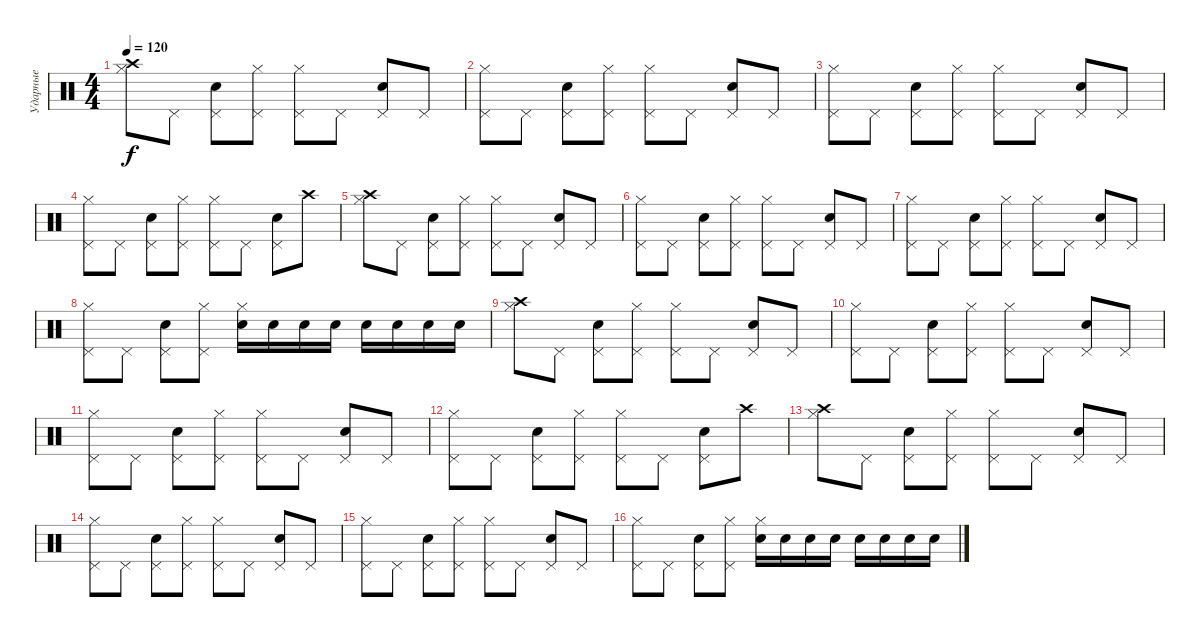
\track ("Ударные" "Ударные") {instrument percussion}
\staff {score}
\articulation defaults
\ts (4 4)
\tempo 120
\clef neutral
\ks c
("Crash high (hit)" "Hi-Hat (closed)").8{dy f} "Pedal Hi-Hat (hit)".8 ("Pedal Hi-Hat (hit)" "Snare (hit) 2").8 ("Pedal Hi-Hat (hit)" "Hi-Hat (closed)").8 ("Pedal Hi-Hat (hit)" "Hi-Hat (closed)").8 "Pedal Hi-Hat (hit)".8 ("Pedal Hi-Hat (hit)" "Snare (hit) 2").8 "Pedal Hi-Hat (hit)".8 |
("Pedal Hi-Hat (hit)" "Hi-Hat (closed)").8 "Pedal Hi-Hat (hit)".8 ("Pedal Hi-Hat (hit)" "Snare (hit) 2").8 ("Pedal Hi-Hat (hit)" "Hi-Hat (closed)").8 ("Pedal Hi-Hat (hit)" "Hi-Hat (closed)").8 "Pedal Hi-Hat (hit)".8 ("Pedal Hi-Hat (hit)" "Snare (hit) 2").8 "Pedal Hi-Hat (hit)".8 |
("Pedal Hi-Hat (hit)" "Hi-Hat (closed)").8 "Pedal Hi-Hat (hit)".8 ("Pedal Hi-Hat (hit)" "Snare (hit) 2").8 ("Pedal Hi-Hat (hit)" "Hi-Hat (closed)").8 ("Pedal Hi-Hat (hit)" "Hi-Hat (closed)").8 "Pedal Hi-Hat (hit)".8 ("Pedal Hi-Hat (hit)" "Snare (hit) 2").8 "Pedal Hi-Hat (hit)".8 |
("Pedal Hi-Hat (hit)" "Hi-Hat (closed)").8 "Pedal Hi-Hat (hit)".8 ("Pedal Hi-Hat (hit)" "Snare (hit) 2").8 ("Pedal Hi-Hat (hit)" "Hi-Hat (closed)").8 ("Pedal Hi-Hat (hit)" "Hi-Hat (closed)").8 "Pedal Hi-Hat (hit)".8 ("Pedal Hi-Hat (hit)" "Snare (hit) 2").8 "Crash high (hit)".8 |
("Crash high (hit)" "Hi-Hat (closed)").8 "Pedal Hi-Hat (hit)".8 ("Pedal Hi-Hat (hit)" "Snare (hit) 2").8 ("Pedal Hi-Hat (hit)" "Hi-Hat (closed)").8 ("Pedal Hi-Hat (hit)" "Hi-Hat (closed)").8 "Pedal Hi-Hat (hit)".8 ("Pedal Hi-Hat (hit)" "Snare (hit) 2").8 "Pedal Hi-Hat (hit)".8 |
("Pedal Hi-Hat (hit)" "Hi-Hat (closed)").8 "Pedal Hi-Hat (hit)".8 ("Pedal Hi-Hat (hit)" "Snare (hit) 2").8 ("Pedal Hi-Hat (hit)" "Hi-Hat (closed)").8 ("Pedal Hi-Hat (hit)" "Hi-Hat (closed)").8 "Pedal Hi-Hat (hit)".8 ("Pedal Hi-Hat (hit)" "Snare (hit) 2").8 "Pedal Hi-Hat (hit)".8 |
("Pedal Hi-Hat (hit)" "Hi-Hat (closed)").8 "Pedal Hi-Hat (hit)".8 ("Pedal Hi-Hat (hit)" "Snare (hit) 2").8 ("Pedal Hi-Hat (hit)" "Hi-Hat (closed)").8 ("Pedal Hi-Hat (hit)" "Hi-Hat (closed)").8 "Pedal Hi-Hat (hit)".8 ("Pedal Hi-Hat (hit)" "Snare (hit) 2").8 "Pedal Hi-Hat (hit)".8 |
("Pedal Hi-Hat (hit)" "Hi-Hat (closed)").8 "Pedal Hi-Hat (hit)".8 ("Pedal Hi-Hat (hit)" "Snare (hit) 2").8 ("Pedal Hi-Hat (hit)" "Hi-Hat (closed)").8 ("Hi-Hat (closed)" "Snare (hit) 2").16 "Snare (hit) 2".16 "Snare (hit) 2".16 "Snare (hit) 2".16 "Snare (hit) 2".16 "Snare (hit) 2".16 "Snare (hit) 2".16 "Snare (hit) 2".16 |
("Crash high (hit)" "Hi-Hat (closed)").8 "Pedal Hi-Hat (hit)".8 ("Pedal Hi-Hat (hit)" "Snare (hit) 2").8 ("Pedal Hi-Hat (hit)" "Hi-Hat (closed)").8 ("Pedal Hi-Hat (hit)" "Hi-Hat (closed)").8 "Pedal Hi-Hat (hit)".8 ("Pedal Hi-Hat (hit)" "Snare (hit) 2").8 "Pedal Hi-Hat (hit)".8 |
("Pedal Hi-Hat (hit)" "Hi-Hat (closed)").8 "Pedal Hi-Hat (hit)".8 ("Pedal Hi-Hat (hit)" "Snare (hit) 2").8 ("Pedal Hi-Hat (hit)" "Hi-Hat (closed)").8 ("Pedal Hi-Hat (hit)" "Hi-Hat (closed)").8 "Pedal Hi-Hat (hit)".8 ("Pedal Hi-Hat (hit)" "Snare (hit) 2").8 "Pedal Hi-Hat (hit)".8 |
("Pedal Hi-Hat (hit)" "Hi-Hat (closed)").8 "Pedal Hi-Hat (hit)".8 ("Pedal Hi-Hat (hit)" "Snare (hit) 2").8 ("Pedal Hi-Hat (hit)" "Hi-Hat (closed)").8 ("Pedal Hi-Hat (hit)" "Hi-Hat (closed)").8 "Pedal Hi-Hat (hit)".8 ("Pedal Hi-Hat (hit)" "Snare (hit) 2").8 "Pedal Hi-Hat (hit)".8 |
("Pedal Hi-Hat (hit)" "Hi-Hat (closed)").8 "Pedal Hi-Hat (hit)".8 ("Pedal Hi-Hat (hit)" "Snare (hit) 2").8 ("Pedal Hi-Hat (hit)" "Hi-Hat (closed)").8 ("Pedal Hi-Hat (hit)" "Hi-Hat (closed)").8 "Pedal Hi-Hat (hit)".8 ("Pedal Hi-Hat (hit)" "Snare (hit) 2").8 "Crash high (hit)".8 |
("Crash high (hit)" "Hi-Hat (closed)").8 "Pedal Hi-Hat (hit)".8 ("Pedal Hi-Hat (hit)" "Snare (hit) 2").8 ("Pedal Hi-Hat (hit)" "Hi-Hat (closed)").8 ("Pedal Hi-Hat (hit)" "Hi-Hat (closed)").8 "Pedal Hi-Hat (hit)".8 ("Pedal Hi-Hat (hit)" "Snare (hit) 2").8 "Pedal Hi-Hat (hit)".8 |
("Pedal Hi-Hat (hit)" "Hi-Hat (closed)").8 "Pedal Hi-Hat (hit)".8 ("Pedal Hi-Hat (hit)" "Snare (hit) 2").8 ("Pedal Hi-Hat (hit)" "Hi-Hat (closed)").8 ("Pedal Hi-Hat (hit)" "Hi-Hat (closed)").8 "Pedal Hi-Hat (hit)".8 ("Pedal Hi-Hat (hit)" "Snare (hit) 2").8 "Pedal Hi-Hat (hit)".8 |
("Pedal Hi-Hat (hit)" "Hi-Hat (closed)").8 "Pedal Hi-Hat (hit)".8 ("Pedal Hi-Hat (hit)" "Snare (hit) 2").8 ("Pedal Hi-Hat (hit)" "Hi-Hat (closed)").8 ("Pedal Hi-Hat (hit)" "Hi-Hat (closed)").8 "Pedal Hi-Hat (hit)".8 ("Pedal Hi-Hat (hit)" "Snare (hit) 2").8 "Pedal Hi-Hat (hit)".8 |
("Pedal Hi-Hat (hit)" "Hi-Hat (closed)").8 "Pedal Hi-Hat (hit)".8 ("Pedal Hi-Hat (hit)" "Snare (hit) 2").8 ("Pedal Hi-Hat (hit)" "Hi-Hat (closed)").8 ("Hi-Hat (closed)" "Snare (hit) 2").16 "Snare (hit) 2".16 "Snare (hit) 2".16 "Snare (hit) 2".16 "Snare (hit) 2".16 "Snare (hit) 2".16 "Snare (hit) 2".16 "Snare (hit) 2".16
